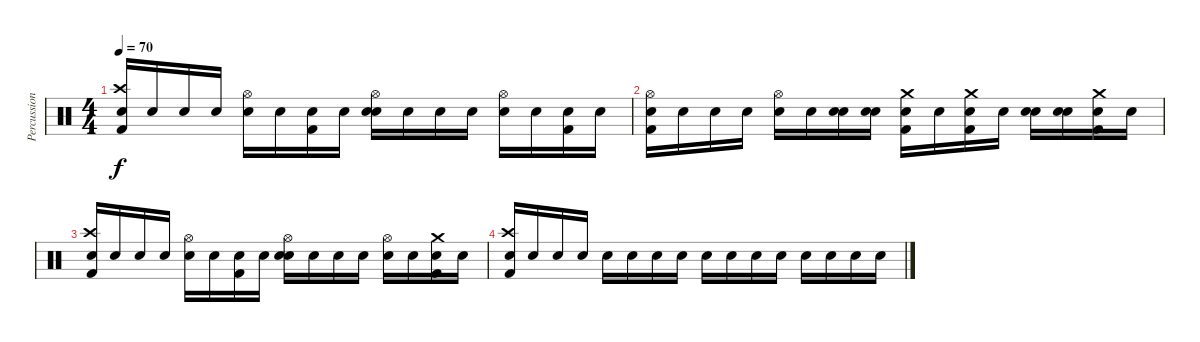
\track ("Percussion" "Percussion") {instrument percussion}
\staff {score}
\articulation defaults
\ts (4 4)
\tempo 70
\clef neutral
\ks c
("Snare (hit)" "Crash high (hit)" "Kick (hit) 2").16{dy f} "Snare (hit)".16 "Snare (hit)".16 "Snare (hit)".16 ("Snare (hit)" "Hi-Hat (open)").16 "Snare (hit)".16 ("Snare (hit)" "Kick (hit) 2").16 "Snare (hit)".16 ("Snare (hit)" "Hi-Hat (open)" "Snare (hit) 2").16 "Snare (hit)".16 "Snare (hit)".16 "Snare (hit)".16 ("Snare (hit)" "Hi-Hat (open)").16 "Snare (hit)".16 ("Snare (hit)" "Kick (hit) 2").16 "Snare (hit)".16 |
("Snare (hit)" "Hi-Hat (open)" "Kick (hit) 2").16 "Snare (hit)".16 "Snare (hit)".16 "Snare (hit)".16 ("Snare (hit)" "Hi-Hat (open)").16 "Snare (hit)".16 ("Snare (hit)" "Snare (hit) 2").16 ("Snare (hit)" "Snare (hit) 2").16 ("Snare (hit)" "Crash medium (hit)" "Kick (hit) 2").16 "Snare (hit)".16 ("Snare (hit)" "Crash medium (hit)" "Kick (hit) 2").16 "Snare (hit)".16 ("Snare (hit)" "Snare (hit) 2").16 ("Snare (hit)" "Snare (hit) 2").16 ("Snare (hit)" "Crash medium (hit)" "Kick (hit) 2").16 "Snare (hit)".16 |
("Snare (hit)" "Crash high (hit)" "Kick (hit) 2").16 "Snare (hit)".16 "Snare (hit)".16 "Snare (hit)".16 ("Snare (hit)" "Hi-Hat (open)").16 "Snare (hit)".16 ("Snare (hit)" "Kick (hit) 2").16 "Snare (hit)".16 ("Snare (hit)" "Hi-Hat (open)" "Snare (hit) 2").16 "Snare (hit)".16 "Snare (hit)".16 "Snare (hit)".16 ("Snare (hit)" "Hi-Hat (open)").16 "Snare (hit)".16 ("Snare (hit)" "Crash medium (hit)" "Kick (hit) 2").16 "Snare (hit)".16 |
("Snare (hit)" "Crash high (hit)" "Kick (hit) 2").16 "Snare (hit)".16 "Snare (hit)".16 "Snare (hit)".16 "Snare (hit)".16 "Snare (hit)".16 "Snare (hit)".16 "Snare (hit)".16 "Snare (hit)".16 "Snare (hit)".16 "Snare (hit)".16 "Snare (hit)".16 "Snare (hit)".16 "Snare (hit)".16 "Snare (hit)".16 "Snare (hit)".16
